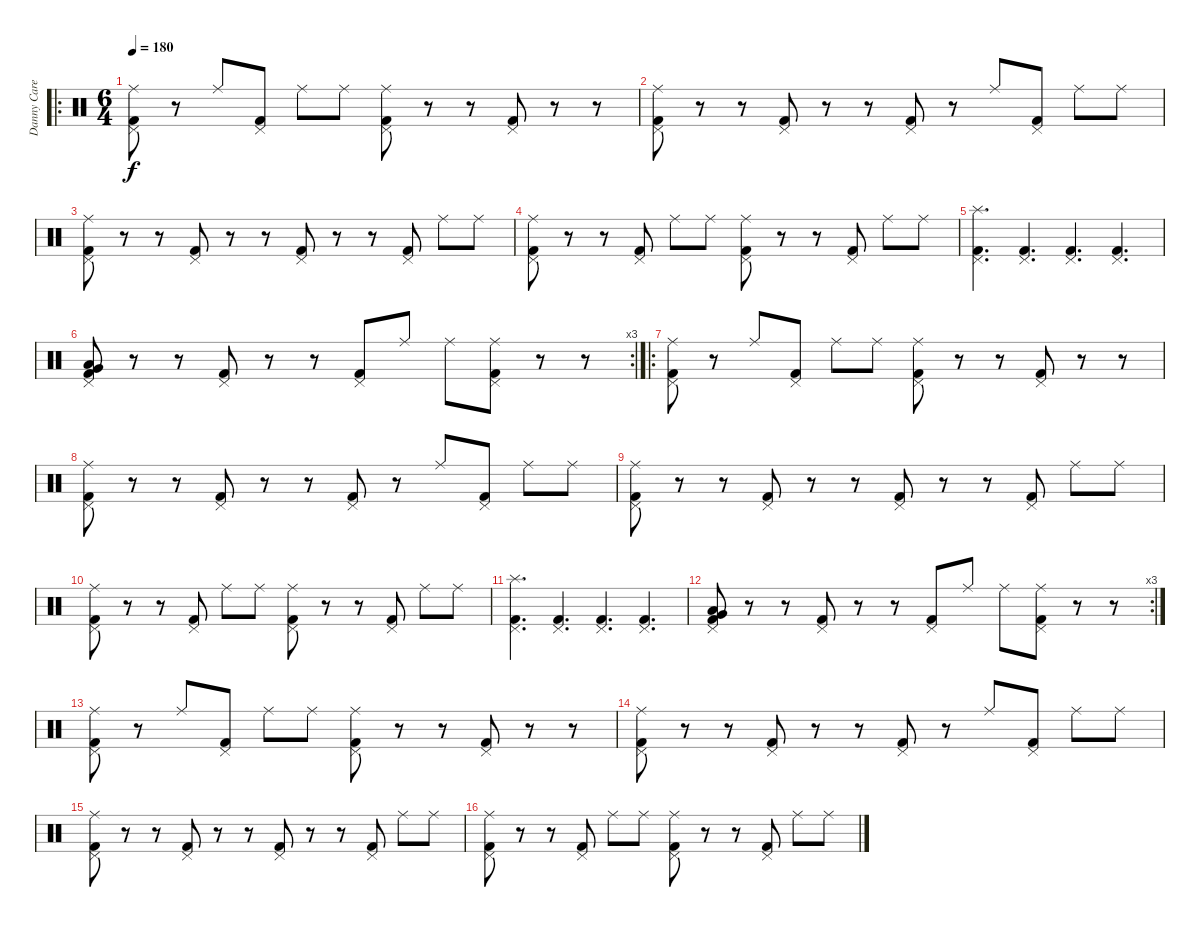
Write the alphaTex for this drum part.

\track ("Danny Carey" "Danny Care") {instrument percussion}
\staff {score}
\articulation defaults
\ro
\ts (6 4)
\tempo 180
\clef neutral
\ks c
("Ride (middle)" "Pedal Hi-Hat (hit)" "Kick (hit) 2").8{dy f} r.8 "Ride (middle)".8 ("Pedal Hi-Hat (hit)" "Kick (hit) 2").8 "Ride (middle)".8 "Ride (middle)".8 ("Ride (middle)" "Pedal Hi-Hat (hit)" "Kick (hit) 2").8 r.8 r.8 ("Pedal Hi-Hat (hit)" "Kick (hit) 2").8 r.8 r.8 |
("Ride (middle)" "Pedal Hi-Hat (hit)" "Kick (hit) 2").8 r.8 r.8 ("Pedal Hi-Hat (hit)" "Kick (hit) 2").8 r.8 r.8 ("Pedal Hi-Hat (hit)" "Kick (hit) 2").8 r.8 "Ride (middle)".8 ("Pedal Hi-Hat (hit)" "Kick (hit) 2").8 "Ride (middle)".8 "Ride (middle)".8 |
("Ride (middle)" "Pedal Hi-Hat (hit)" "Kick (hit) 2").8 r.8 r.8 ("Pedal Hi-Hat (hit)" "Kick (hit) 2").8 r.8 r.8 ("Pedal Hi-Hat (hit)" "Kick (hit) 2").8 r.8 r.8 ("Pedal Hi-Hat (hit)" "Kick (hit) 2").8 "Ride (middle)".8 "Ride (middle)".8 |
("Ride (middle)" "Pedal Hi-Hat (hit)" "Kick (hit) 2").8 r.8 r.8 ("Pedal Hi-Hat (hit)" "Kick (hit) 2").8 "Ride (middle)".8 "Ride (middle)".8 ("Ride (middle)" "Pedal Hi-Hat (hit)" "Kick (hit) 2").8 r.8 r.8 ("Pedal Hi-Hat (hit)" "Kick (hit) 2").8 "Ride (middle)".8 "Ride (middle)".8 |
("Splash (hit)" "Pedal Hi-Hat (hit)" "Kick (hit) 2").4{d} ("Pedal Hi-Hat (hit)" "Kick (hit) 2").4{d} ("Pedal Hi-Hat (hit)" "Kick (hit) 2").4{d} ("Pedal Hi-Hat (hit)" "Kick (hit) 2").4{d} |
\rc 3
("Kick (hit) 2" "Very Low Tom (hit)" "Pedal Hi-Hat (hit)" "Low Floor Tom (hit)").8 r.8 r.8 ("Pedal Hi-Hat (hit)" "Kick (hit) 2").8 r.8 r.8 ("Pedal Hi-Hat (hit)" "Kick (hit) 2").8 "Ride (middle)".8 "Ride (middle)".8 ("Ride (middle)" "Pedal Hi-Hat (hit)" "Kick (hit) 2").8 r.8 r.8 |
\ro
("Ride (middle)" "Pedal Hi-Hat (hit)" "Kick (hit) 2").8 r.8 "Ride (middle)".8 ("Pedal Hi-Hat (hit)" "Kick (hit) 2").8 "Ride (middle)".8 "Ride (middle)".8 ("Ride (middle)" "Pedal Hi-Hat (hit)" "Kick (hit) 2").8 r.8 r.8 ("Pedal Hi-Hat (hit)" "Kick (hit) 2").8 r.8 r.8 |
("Ride (middle)" "Pedal Hi-Hat (hit)" "Kick (hit) 2").8 r.8 r.8 ("Pedal Hi-Hat (hit)" "Kick (hit) 2").8 r.8 r.8 ("Pedal Hi-Hat (hit)" "Kick (hit) 2").8 r.8 "Ride (middle)".8 ("Pedal Hi-Hat (hit)" "Kick (hit) 2").8 "Ride (middle)".8 "Ride (middle)".8 |
("Ride (middle)" "Pedal Hi-Hat (hit)" "Kick (hit) 2").8 r.8 r.8 ("Pedal Hi-Hat (hit)" "Kick (hit) 2").8 r.8 r.8 ("Pedal Hi-Hat (hit)" "Kick (hit) 2").8 r.8 r.8 ("Pedal Hi-Hat (hit)" "Kick (hit) 2").8 "Ride (middle)".8 "Ride (middle)".8 |
("Ride (middle)" "Pedal Hi-Hat (hit)" "Kick (hit) 2").8 r.8 r.8 ("Pedal Hi-Hat (hit)" "Kick (hit) 2").8 "Ride (middle)".8 "Ride (middle)".8 ("Ride (middle)" "Pedal Hi-Hat (hit)" "Kick (hit) 2").8 r.8 r.8 ("Pedal Hi-Hat (hit)" "Kick (hit) 2").8 "Ride (middle)".8 "Ride (middle)".8 |
("Splash (hit)" "Pedal Hi-Hat (hit)" "Kick (hit) 2").4{d} ("Pedal Hi-Hat (hit)" "Kick (hit) 2").4{d} ("Pedal Hi-Hat (hit)" "Kick (hit) 2").4{d} ("Pedal Hi-Hat (hit)" "Kick (hit) 2").4{d} |
\rc 3
("Kick (hit) 2" "Very Low Tom (hit)" "Pedal Hi-Hat (hit)" "Low Floor Tom (hit)").8 r.8 r.8 ("Pedal Hi-Hat (hit)" "Kick (hit) 2").8 r.8 r.8 ("Pedal Hi-Hat (hit)" "Kick (hit) 2").8 "Ride (middle)".8 "Ride (middle)".8 ("Ride (middle)" "Pedal Hi-Hat (hit)" "Kick (hit) 2").8 r.8 r.8 |
("Ride (middle)" "Pedal Hi-Hat (hit)" "Kick (hit) 2").8 r.8 "Ride (middle)".8 ("Pedal Hi-Hat (hit)" "Kick (hit) 2").8 "Ride (middle)".8 "Ride (middle)".8 ("Ride (middle)" "Pedal Hi-Hat (hit)" "Kick (hit) 2").8 r.8 r.8 ("Pedal Hi-Hat (hit)" "Kick (hit) 2").8 r.8 r.8 |
("Ride (middle)" "Pedal Hi-Hat (hit)" "Kick (hit) 2").8 r.8 r.8 ("Pedal Hi-Hat (hit)" "Kick (hit) 2").8 r.8 r.8 ("Pedal Hi-Hat (hit)" "Kick (hit) 2").8 r.8 "Ride (middle)".8 ("Pedal Hi-Hat (hit)" "Kick (hit) 2").8 "Ride (middle)".8 "Ride (middle)".8 |
("Ride (middle)" "Pedal Hi-Hat (hit)" "Kick (hit) 2").8 r.8 r.8 ("Pedal Hi-Hat (hit)" "Kick (hit) 2").8 r.8 r.8 ("Pedal Hi-Hat (hit)" "Kick (hit) 2").8 r.8 r.8 ("Pedal Hi-Hat (hit)" "Kick (hit) 2").8 "Ride (middle)".8 "Ride (middle)".8 |
("Ride (middle)" "Pedal Hi-Hat (hit)" "Kick (hit) 2").8 r.8 r.8 ("Pedal Hi-Hat (hit)" "Kick (hit) 2").8 "Ride (middle)".8 "Ride (middle)".8 ("Ride (middle)" "Pedal Hi-Hat (hit)" "Kick (hit) 2").8 r.8 r.8 ("Pedal Hi-Hat (hit)" "Kick (hit) 2").8 "Ride (middle)".8 "Ride (middle)".8
